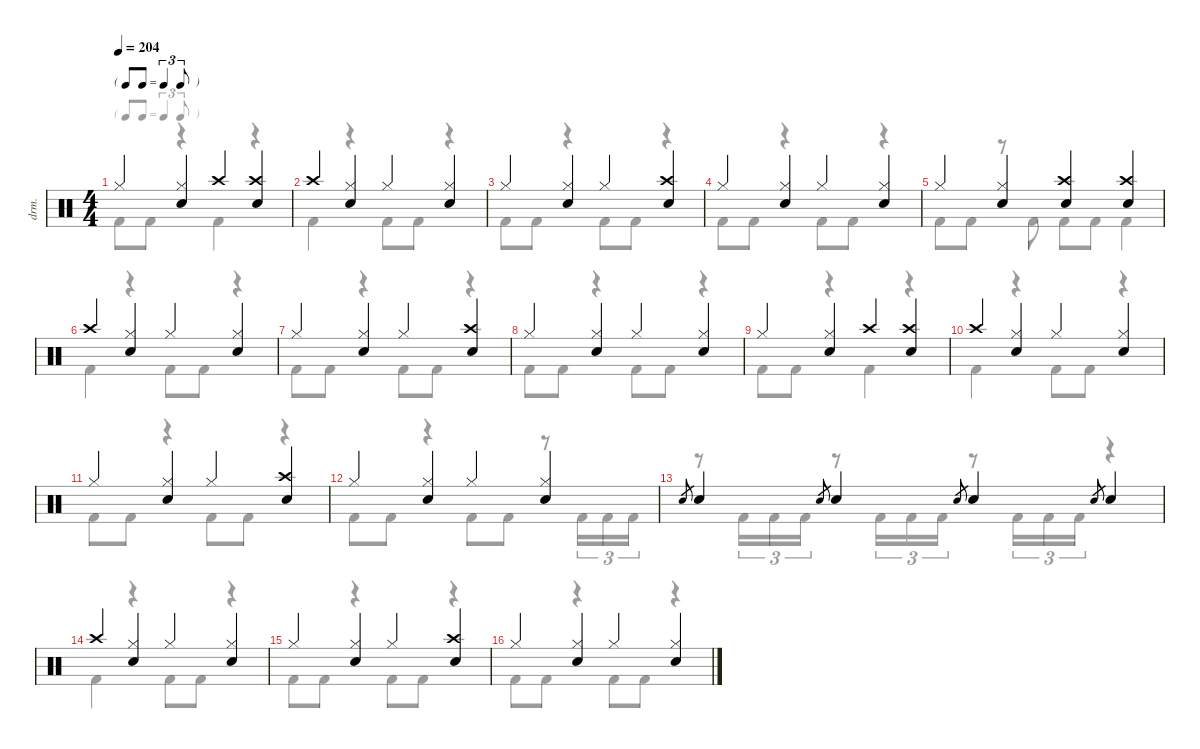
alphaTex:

\defaultSystemsLayout 4
\hideDynamics
\bracketExtendMode nobrackets
\otherSystemsTrackNameOrientation horizontal
\track ("Lars Ulrich" "drm.") {defaultSystemsLayout 8 instrument percussion}
\staff {score}
\articulation defaults
\voice
\ts (4 4)
\tf triplet8th
\tempo 204
\clef neutral
\ks aminor "Hi-Hat (closed)".4{dy f beam Up}
("Hi-Hat (closed)" "Snare (hit) 2").4{beam Up} "Crash high (hit)".4{beam Up} ("Crash high (hit)" "Snare (hit) 2").4{beam Up} |
"Crash high (hit)".4{beam Up} ("Hi-Hat (closed)" "Snare (hit) 2").4{beam Up} "Hi-Hat (closed)".4{beam Up} ("Hi-Hat (closed)" "Snare (hit) 2").4{beam Up} |
"Hi-Hat (closed)".4{beam Up} ("Hi-Hat (closed)" "Snare (hit) 2").4{beam Up} "Hi-Hat (closed)".4{beam Up} ("Crash high (hit)" "Snare (hit) 2").4{beam Up} |
"Hi-Hat (closed)".4{beam Up} ("Hi-Hat (closed)" "Snare (hit) 2").4{beam Up} "Hi-Hat (closed)".4{beam Up} ("Hi-Hat (closed)" "Snare (hit) 2").4{beam Up} |
"Hi-Hat (closed)".4{beam Up} ("Hi-Hat (closed)" "Snare (hit) 2").4{beam Up} ("Crash high (hit)" "Snare (hit) 2").4{beam Up} ("Crash high (hit)" "Snare (hit) 2").4{beam Up} |
"Crash high (hit)".4{beam Up} ("Hi-Hat (closed)" "Snare (hit) 2").4{beam Up} "Hi-Hat (closed)".4{beam Up} ("Hi-Hat (closed)" "Snare (hit) 2").4{beam Up} |
"Hi-Hat (closed)".4{beam Up} ("Hi-Hat (closed)" "Snare (hit) 2").4{beam Up} "Hi-Hat (closed)".4{beam Up} ("Crash high (hit)" "Snare (hit) 2").4{beam Up} |
"Hi-Hat (closed)".4{beam Up} ("Hi-Hat (closed)" "Snare (hit) 2").4{beam Up} "Hi-Hat (closed)".4{beam Up} ("Hi-Hat (closed)" "Snare (hit) 2").4{beam Up} |
"Hi-Hat (closed)".4{beam Up} ("Hi-Hat (closed)" "Snare (hit) 2").4{beam Up} "Crash high (hit)".4{beam Up} ("Crash high (hit)" "Snare (hit) 2").4{beam Up} |
"Crash high (hit)".4{beam Up} ("Hi-Hat (closed)" "Snare (hit) 2").4{beam Up} "Hi-Hat (closed)".4{beam Up} ("Hi-Hat (closed)" "Snare (hit) 2").4{beam Up} |
"Hi-Hat (closed)".4{beam Up} ("Hi-Hat (closed)" "Snare (hit) 2").4{beam Up} "Hi-Hat (closed)".4{beam Up} ("Crash high (hit)" "Snare (hit) 2").4{beam Up} |
"Hi-Hat (closed)".4{beam Up} ("Hi-Hat (closed)" "Snare (hit) 2").4{beam Up} "Hi-Hat (closed)".4{beam Up} ("Hi-Hat (closed)" "Snare (hit) 2").4{beam Up} |
"Snare (hit) 2".8{gr dy mf beam Up} "Snare (hit) 2".4{dy f beam Up} "Snare (hit) 2".8{gr dy mf beam Up} "Snare (hit) 2".4{dy f beam Up} "Snare (hit) 2".8{gr dy mf beam Up} "Snare (hit) 2".4{dy f beam Up} "Snare (hit) 2".8{gr dy mf beam Up} "Snare (hit) 2".4{dy f beam Up} |
"Crash high (hit)".4{beam Up} ("Hi-Hat (closed)" "Snare (hit) 2").4{beam Up} "Hi-Hat (closed)".4{beam Up} ("Hi-Hat (closed)" "Snare (hit) 2").4{beam Up} |
"Hi-Hat (closed)".4{beam Up} ("Hi-Hat (closed)" "Snare (hit) 2").4{beam Up} "Hi-Hat (closed)".4{beam Up} ("Crash high (hit)" "Snare (hit) 2").4{beam Up} |
"Hi-Hat (closed)".4{beam Up} ("Hi-Hat (closed)" "Snare (hit) 2").4{beam Up} "Hi-Hat (closed)".4{beam Up} ("Hi-Hat (closed)" "Snare (hit) 2").4{beam Up}
\voice
\clef neutral
\ottava regular
\simile none
\ks aminor "Kick (hit) 2".8{dy f beam Down} "Kick (hit) 2".8{beam Down}
r.4{beam Down} "Kick (hit) 2".4{beam Down} r.4{beam Down} |
"Kick (hit) 2".4{beam Down} r.4{beam Down} "Kick (hit) 2".8{beam Down} "Kick (hit) 2".8{beam Down} r.4{beam Down} |
"Kick (hit) 2".8{beam Down} "Kick (hit) 2".8{beam Down} r.4{beam Down} "Kick (hit) 2".8{beam Down} "Kick (hit) 2".8{beam Down} r.4{beam Down} |
"Kick (hit) 2".8{beam Down} "Kick (hit) 2".8{beam Down} r.4{beam Down} "Kick (hit) 2".8{beam Down} "Kick (hit) 2".8{beam Down} r.4{beam Down} |
"Kick (hit) 2".8{beam Down} "Kick (hit) 2".8{beam Down} r.8{beam Down} "Kick (hit) 2".8{beam Down} "Kick (hit) 2".8{beam Down} "Kick (hit) 2".8{beam Down} "Kick (hit) 2".4{beam Down} |
"Kick (hit) 2".4{beam Down} r.4{beam Down} "Kick (hit) 2".8{beam Down} "Kick (hit) 2".8{beam Down} r.4{beam Down} |
"Kick (hit) 2".8{beam Down} "Kick (hit) 2".8{beam Down} r.4{beam Down} "Kick (hit) 2".8{beam Down} "Kick (hit) 2".8{beam Down} r.4{beam Down} |
"Kick (hit) 2".8{beam Down} "Kick (hit) 2".8{beam Down} r.4{beam Down} "Kick (hit) 2".8{beam Down} "Kick (hit) 2".8{beam Down} r.4{beam Down} |
"Kick (hit) 2".8{beam Down} "Kick (hit) 2".8{beam Down} r.4{beam Down} "Kick (hit) 2".4{beam Down} r.4{beam Down} |
"Kick (hit) 2".4{beam Down} r.4{beam Down} "Kick (hit) 2".8{beam Down} "Kick (hit) 2".8{beam Down} r.4{beam Down} |
"Kick (hit) 2".8{beam Down} "Kick (hit) 2".8{beam Down} r.4{beam Down} "Kick (hit) 2".8{beam Down} "Kick (hit) 2".8{beam Down} r.4{beam Down} |
"Kick (hit) 2".8{beam Down} "Kick (hit) 2".8{beam Down} r.4{beam Down} "Kick (hit) 2".8{beam Down} "Kick (hit) 2".8{beam Down} r.8{beam Down} "Kick (hit) 2".16{tu (3 2) beam Down} "Kick (hit) 2".16{tu (3 2) beam Down} "Kick (hit) 2".16{tu (3 2) beam Down} |
r.8{beam Down} "Kick (hit) 2".16{tu (3 2) beam Down} "Kick (hit) 2".16{tu (3 2) beam Down} "Kick (hit) 2".16{tu (3 2) beam Down} r.8{beam Down} "Kick (hit) 2".16{tu (3 2) beam Down} "Kick (hit) 2".16{tu (3 2) beam Down} "Kick (hit) 2".16{tu (3 2) beam Down} r.8{beam Down} "Kick (hit) 2".16{tu (3 2) beam Down} "Kick (hit) 2".16{tu (3 2) beam Down} "Kick (hit) 2".16{tu (3 2) beam Down} r.4{beam Down} |
"Kick (hit) 2".4{beam Down} r.4{beam Down} "Kick (hit) 2".8{beam Down} "Kick (hit) 2".8{beam Down} r.4{beam Down} |
"Kick (hit) 2".8{beam Down} "Kick (hit) 2".8{beam Down} r.4{beam Down} "Kick (hit) 2".8{beam Down} "Kick (hit) 2".8{beam Down} r.4{beam Down} |
"Kick (hit) 2".8{beam Down} "Kick (hit) 2".8{beam Down} r.4{beam Down} "Kick (hit) 2".8{beam Down} "Kick (hit) 2".8{beam Down} r.4{beam Down}
